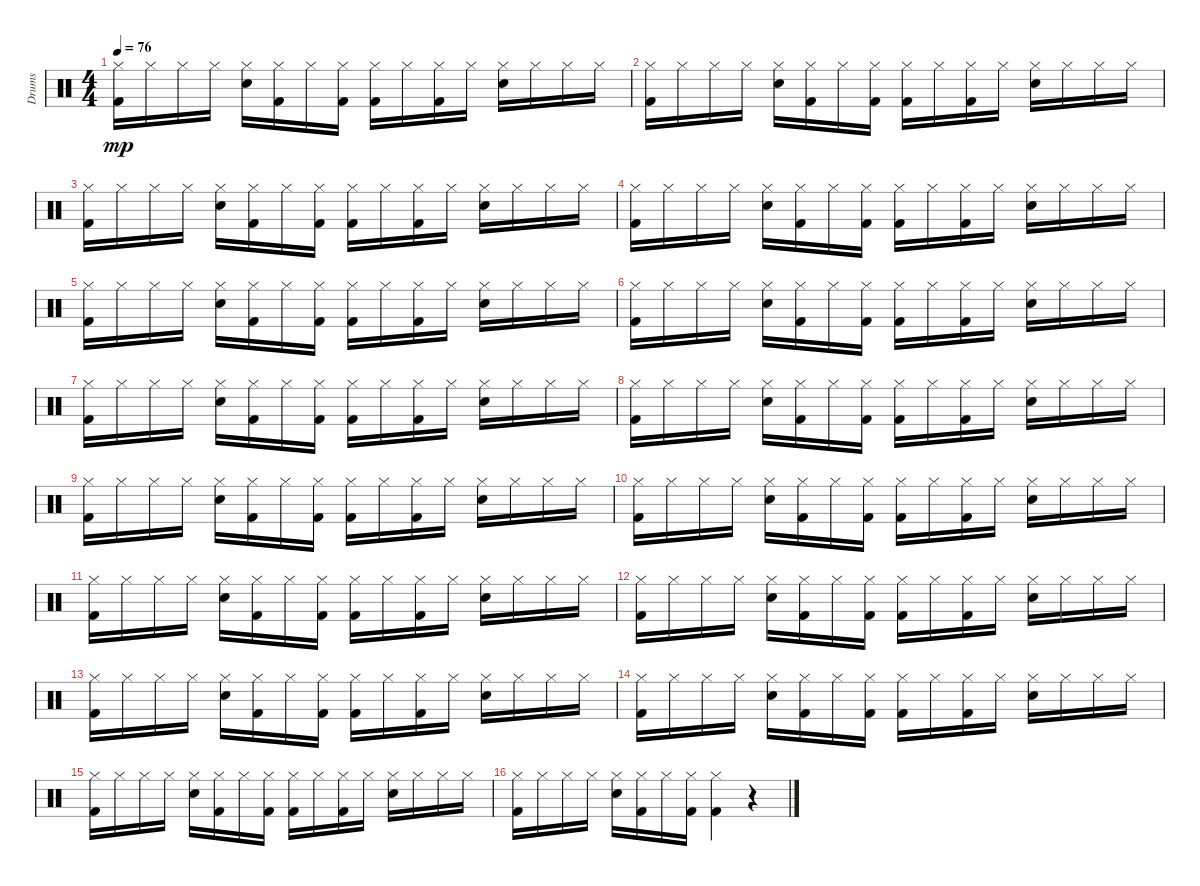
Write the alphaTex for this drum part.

\track ("Drums" "Drums") {instrument percussion}
\staff {score}
\articulation defaults
\ts (4 4)
\tempo 76
\clef neutral
\ks c
("Hi-Hat (closed)" "Kick (hit) 2").16{dy mp} "Hi-Hat (closed)".16 "Hi-Hat (closed)".16 "Hi-Hat (closed)".16 ("Hi-Hat (closed)" "Snare (hit) 2").16 ("Hi-Hat (closed)" "Kick (hit) 2").16 "Hi-Hat (closed)".16 ("Hi-Hat (closed)" "Kick (hit) 2").16 ("Hi-Hat (closed)" "Kick (hit) 2").16 "Hi-Hat (closed)".16 ("Hi-Hat (closed)" "Kick (hit) 2").16 "Hi-Hat (closed)".16 ("Snare (hit) 2" "Hi-Hat (closed)").16 "Hi-Hat (closed)".16 "Hi-Hat (closed)".16 "Hi-Hat (closed)".16 |
("Hi-Hat (closed)" "Kick (hit) 2").16 "Hi-Hat (closed)".16 "Hi-Hat (closed)".16 "Hi-Hat (closed)".16 ("Hi-Hat (closed)" "Snare (hit) 2").16 ("Hi-Hat (closed)" "Kick (hit) 2").16 "Hi-Hat (closed)".16 ("Hi-Hat (closed)" "Kick (hit) 2").16 ("Hi-Hat (closed)" "Kick (hit) 2").16 "Hi-Hat (closed)".16 ("Hi-Hat (closed)" "Kick (hit) 2").16 "Hi-Hat (closed)".16 ("Snare (hit) 2" "Hi-Hat (closed)").16 "Hi-Hat (closed)".16 "Hi-Hat (closed)".16 "Hi-Hat (closed)".16 |
("Hi-Hat (closed)" "Kick (hit) 2").16 "Hi-Hat (closed)".16 "Hi-Hat (closed)".16 "Hi-Hat (closed)".16 ("Hi-Hat (closed)" "Snare (hit) 2").16 ("Hi-Hat (closed)" "Kick (hit) 2").16 "Hi-Hat (closed)".16 ("Hi-Hat (closed)" "Kick (hit) 2").16 ("Hi-Hat (closed)" "Kick (hit) 2").16 "Hi-Hat (closed)".16 ("Hi-Hat (closed)" "Kick (hit) 2").16 "Hi-Hat (closed)".16 ("Snare (hit) 2" "Hi-Hat (closed)").16 "Hi-Hat (closed)".16 "Hi-Hat (closed)".16 "Hi-Hat (closed)".16 |
("Hi-Hat (closed)" "Kick (hit) 2").16 "Hi-Hat (closed)".16 "Hi-Hat (closed)".16 "Hi-Hat (closed)".16 ("Hi-Hat (closed)" "Snare (hit) 2").16 ("Hi-Hat (closed)" "Kick (hit) 2").16 "Hi-Hat (closed)".16 ("Hi-Hat (closed)" "Kick (hit) 2").16 ("Hi-Hat (closed)" "Kick (hit) 2").16 "Hi-Hat (closed)".16 ("Hi-Hat (closed)" "Kick (hit) 2").16 "Hi-Hat (closed)".16 ("Snare (hit) 2" "Hi-Hat (closed)").16 "Hi-Hat (closed)".16 "Hi-Hat (closed)".16 "Hi-Hat (closed)".16 |
("Hi-Hat (closed)" "Kick (hit) 2").16 "Hi-Hat (closed)".16 "Hi-Hat (closed)".16 "Hi-Hat (closed)".16 ("Hi-Hat (closed)" "Snare (hit) 2").16 ("Hi-Hat (closed)" "Kick (hit) 2").16 "Hi-Hat (closed)".16 ("Hi-Hat (closed)" "Kick (hit) 2").16 ("Hi-Hat (closed)" "Kick (hit) 2").16 "Hi-Hat (closed)".16 ("Hi-Hat (closed)" "Kick (hit) 2").16 "Hi-Hat (closed)".16 ("Snare (hit) 2" "Hi-Hat (closed)").16 "Hi-Hat (closed)".16 "Hi-Hat (closed)".16 "Hi-Hat (closed)".16 |
("Hi-Hat (closed)" "Kick (hit) 2").16 "Hi-Hat (closed)".16 "Hi-Hat (closed)".16 "Hi-Hat (closed)".16 ("Hi-Hat (closed)" "Snare (hit) 2").16 ("Hi-Hat (closed)" "Kick (hit) 2").16 "Hi-Hat (closed)".16 ("Hi-Hat (closed)" "Kick (hit) 2").16 ("Hi-Hat (closed)" "Kick (hit) 2").16 "Hi-Hat (closed)".16 ("Hi-Hat (closed)" "Kick (hit) 2").16 "Hi-Hat (closed)".16 ("Snare (hit) 2" "Hi-Hat (closed)").16 "Hi-Hat (closed)".16 "Hi-Hat (closed)".16 "Hi-Hat (closed)".16 |
("Hi-Hat (closed)" "Kick (hit) 2").16 "Hi-Hat (closed)".16 "Hi-Hat (closed)".16 "Hi-Hat (closed)".16 ("Hi-Hat (closed)" "Snare (hit) 2").16 ("Hi-Hat (closed)" "Kick (hit) 2").16 "Hi-Hat (closed)".16 ("Hi-Hat (closed)" "Kick (hit) 2").16 ("Hi-Hat (closed)" "Kick (hit) 2").16 "Hi-Hat (closed)".16 ("Hi-Hat (closed)" "Kick (hit) 2").16 "Hi-Hat (closed)".16 ("Snare (hit) 2" "Hi-Hat (closed)").16 "Hi-Hat (closed)".16 "Hi-Hat (closed)".16 "Hi-Hat (closed)".16 |
("Hi-Hat (closed)" "Kick (hit) 2").16 "Hi-Hat (closed)".16 "Hi-Hat (closed)".16 "Hi-Hat (closed)".16 ("Hi-Hat (closed)" "Snare (hit) 2").16 ("Hi-Hat (closed)" "Kick (hit) 2").16 "Hi-Hat (closed)".16 ("Hi-Hat (closed)" "Kick (hit) 2").16 ("Hi-Hat (closed)" "Kick (hit) 2").16 "Hi-Hat (closed)".16 ("Hi-Hat (closed)" "Kick (hit) 2").16 "Hi-Hat (closed)".16 ("Snare (hit) 2" "Hi-Hat (closed)").16 "Hi-Hat (closed)".16 "Hi-Hat (closed)".16 "Hi-Hat (closed)".16 |
("Hi-Hat (closed)" "Kick (hit) 2").16 "Hi-Hat (closed)".16 "Hi-Hat (closed)".16 "Hi-Hat (closed)".16 ("Hi-Hat (closed)" "Snare (hit) 2").16 ("Hi-Hat (closed)" "Kick (hit) 2").16 "Hi-Hat (closed)".16 ("Hi-Hat (closed)" "Kick (hit) 2").16 ("Hi-Hat (closed)" "Kick (hit) 2").16 "Hi-Hat (closed)".16 ("Hi-Hat (closed)" "Kick (hit) 2").16 "Hi-Hat (closed)".16 ("Snare (hit) 2" "Hi-Hat (closed)").16 "Hi-Hat (closed)".16 "Hi-Hat (closed)".16 "Hi-Hat (closed)".16 |
("Hi-Hat (closed)" "Kick (hit) 2").16 "Hi-Hat (closed)".16 "Hi-Hat (closed)".16 "Hi-Hat (closed)".16 ("Hi-Hat (closed)" "Snare (hit) 2").16 ("Hi-Hat (closed)" "Kick (hit) 2").16 "Hi-Hat (closed)".16 ("Hi-Hat (closed)" "Kick (hit) 2").16 ("Hi-Hat (closed)" "Kick (hit) 2").16 "Hi-Hat (closed)".16 ("Hi-Hat (closed)" "Kick (hit) 2").16 "Hi-Hat (closed)".16 ("Snare (hit) 2" "Hi-Hat (closed)").16 "Hi-Hat (closed)".16 "Hi-Hat (closed)".16 "Hi-Hat (closed)".16 |
("Hi-Hat (closed)" "Kick (hit) 2").16 "Hi-Hat (closed)".16 "Hi-Hat (closed)".16 "Hi-Hat (closed)".16 ("Hi-Hat (closed)" "Snare (hit) 2").16 ("Hi-Hat (closed)" "Kick (hit) 2").16 "Hi-Hat (closed)".16 ("Hi-Hat (closed)" "Kick (hit) 2").16 ("Hi-Hat (closed)" "Kick (hit) 2").16 "Hi-Hat (closed)".16 ("Hi-Hat (closed)" "Kick (hit) 2").16 "Hi-Hat (closed)".16 ("Snare (hit) 2" "Hi-Hat (closed)").16 "Hi-Hat (closed)".16 "Hi-Hat (closed)".16 "Hi-Hat (closed)".16 |
("Hi-Hat (closed)" "Kick (hit) 2").16 "Hi-Hat (closed)".16 "Hi-Hat (closed)".16 "Hi-Hat (closed)".16 ("Hi-Hat (closed)" "Snare (hit) 2").16 ("Hi-Hat (closed)" "Kick (hit) 2").16 "Hi-Hat (closed)".16 ("Hi-Hat (closed)" "Kick (hit) 2").16 ("Hi-Hat (closed)" "Kick (hit) 2").16 "Hi-Hat (closed)".16 ("Hi-Hat (closed)" "Kick (hit) 2").16 "Hi-Hat (closed)".16 ("Snare (hit) 2" "Hi-Hat (closed)").16 "Hi-Hat (closed)".16 "Hi-Hat (closed)".16 "Hi-Hat (closed)".16 |
("Hi-Hat (closed)" "Kick (hit) 2").16 "Hi-Hat (closed)".16 "Hi-Hat (closed)".16 "Hi-Hat (closed)".16 ("Hi-Hat (closed)" "Snare (hit) 2").16 ("Hi-Hat (closed)" "Kick (hit) 2").16 "Hi-Hat (closed)".16 ("Hi-Hat (closed)" "Kick (hit) 2").16 ("Hi-Hat (closed)" "Kick (hit) 2").16 "Hi-Hat (closed)".16 ("Hi-Hat (closed)" "Kick (hit) 2").16 "Hi-Hat (closed)".16 ("Snare (hit) 2" "Hi-Hat (closed)").16 "Hi-Hat (closed)".16 "Hi-Hat (closed)".16 "Hi-Hat (closed)".16 |
("Hi-Hat (closed)" "Kick (hit) 2").16 "Hi-Hat (closed)".16 "Hi-Hat (closed)".16 "Hi-Hat (closed)".16 ("Hi-Hat (closed)" "Snare (hit) 2").16 ("Hi-Hat (closed)" "Kick (hit) 2").16 "Hi-Hat (closed)".16 ("Hi-Hat (closed)" "Kick (hit) 2").16 ("Hi-Hat (closed)" "Kick (hit) 2").16 "Hi-Hat (closed)".16 ("Hi-Hat (closed)" "Kick (hit) 2").16 "Hi-Hat (closed)".16 ("Snare (hit) 2" "Hi-Hat (closed)").16 "Hi-Hat (closed)".16 "Hi-Hat (closed)".16 "Hi-Hat (closed)".16 |
("Hi-Hat (closed)" "Kick (hit) 2").16 "Hi-Hat (closed)".16 "Hi-Hat (closed)".16 "Hi-Hat (closed)".16 ("Hi-Hat (closed)" "Snare (hit) 2").16 ("Hi-Hat (closed)" "Kick (hit) 2").16 "Hi-Hat (closed)".16 ("Hi-Hat (closed)" "Kick (hit) 2").16 ("Hi-Hat (closed)" "Kick (hit) 2").16 "Hi-Hat (closed)".16 ("Hi-Hat (closed)" "Kick (hit) 2").16 "Hi-Hat (closed)".16 ("Snare (hit) 2" "Hi-Hat (closed)").16 "Hi-Hat (closed)".16 "Hi-Hat (closed)".16 "Hi-Hat (closed)".16 |
("Hi-Hat (closed)" "Kick (hit) 2").16 "Hi-Hat (closed)".16 "Hi-Hat (closed)".16 "Hi-Hat (closed)".16 ("Hi-Hat (closed)" "Snare (hit) 2").16 ("Hi-Hat (closed)" "Kick (hit) 2").16 "Hi-Hat (closed)".16 ("Hi-Hat (closed)" "Kick (hit) 2").16 ("Hi-Hat (closed)" "Kick (hit) 2").4 r.4
